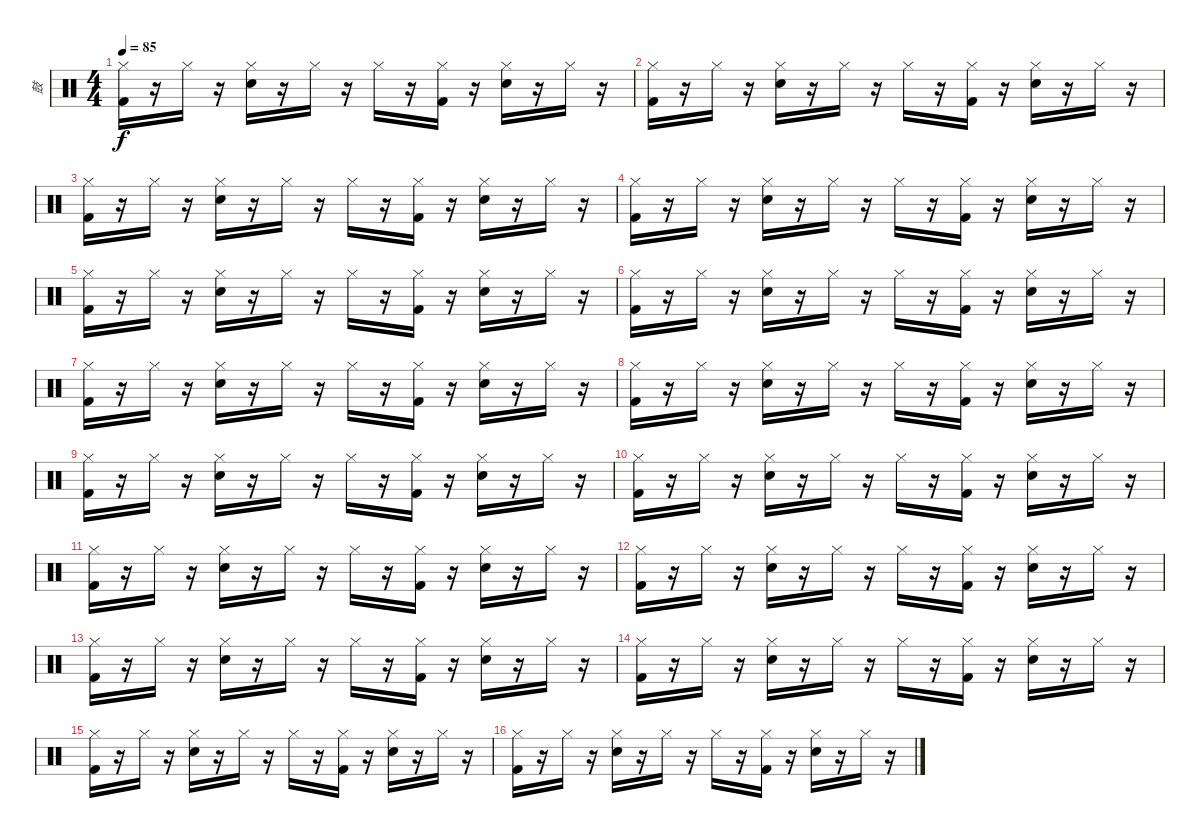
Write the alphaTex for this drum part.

\track ("鼓" "鼓") {instrument percussion}
\staff {score}
\articulation defaults
\ts (4 4)
\tempo 85
\clef neutral
\ks c
("Hi-Hat (closed)" "Kick (hit) 2").16{dy f} r.16 "Hi-Hat (closed)".16 r.16 ("Hi-Hat (closed)" "Snare (hit) 2").16 r.16 "Hi-Hat (closed)".16 r.16 "Hi-Hat (closed)".16 r.16 ("Hi-Hat (closed)" "Kick (hit) 2").16 r.16 ("Hi-Hat (closed)" "Snare (hit) 2").16 r.16 "Hi-Hat (closed)".16 r.16 |
("Hi-Hat (closed)" "Kick (hit) 2").16 r.16 "Hi-Hat (closed)".16 r.16 ("Hi-Hat (closed)" "Snare (hit) 2").16 r.16 "Hi-Hat (closed)".16 r.16 "Hi-Hat (closed)".16 r.16 ("Hi-Hat (closed)" "Kick (hit) 2").16 r.16 ("Hi-Hat (closed)" "Snare (hit) 2").16 r.16 "Hi-Hat (closed)".16 r.16 |
("Hi-Hat (closed)" "Kick (hit) 2").16 r.16 "Hi-Hat (closed)".16 r.16 ("Hi-Hat (closed)" "Snare (hit) 2").16 r.16 "Hi-Hat (closed)".16 r.16 "Hi-Hat (closed)".16 r.16 ("Hi-Hat (closed)" "Kick (hit) 2").16 r.16 ("Hi-Hat (closed)" "Snare (hit) 2").16 r.16 "Hi-Hat (closed)".16 r.16 |
("Hi-Hat (closed)" "Kick (hit) 2").16 r.16 "Hi-Hat (closed)".16 r.16 ("Hi-Hat (closed)" "Snare (hit) 2").16 r.16 "Hi-Hat (closed)".16 r.16 "Hi-Hat (closed)".16 r.16 ("Hi-Hat (closed)" "Kick (hit) 2").16 r.16 ("Hi-Hat (closed)" "Snare (hit) 2").16 r.16 "Hi-Hat (closed)".16 r.16 |
("Hi-Hat (closed)" "Kick (hit) 2").16 r.16 "Hi-Hat (closed)".16 r.16 ("Hi-Hat (closed)" "Snare (hit) 2").16 r.16 "Hi-Hat (closed)".16 r.16 "Hi-Hat (closed)".16 r.16 ("Hi-Hat (closed)" "Kick (hit) 2").16 r.16 ("Hi-Hat (closed)" "Snare (hit) 2").16 r.16 "Hi-Hat (closed)".16 r.16 |
("Hi-Hat (closed)" "Kick (hit) 2").16 r.16 "Hi-Hat (closed)".16 r.16 ("Hi-Hat (closed)" "Snare (hit) 2").16 r.16 "Hi-Hat (closed)".16 r.16 "Hi-Hat (closed)".16 r.16 ("Hi-Hat (closed)" "Kick (hit) 2").16 r.16 ("Hi-Hat (closed)" "Snare (hit) 2").16 r.16 "Hi-Hat (closed)".16 r.16 |
("Hi-Hat (closed)" "Kick (hit) 2").16 r.16 "Hi-Hat (closed)".16 r.16 ("Hi-Hat (closed)" "Snare (hit) 2").16 r.16 "Hi-Hat (closed)".16 r.16 "Hi-Hat (closed)".16 r.16 ("Hi-Hat (closed)" "Kick (hit) 2").16 r.16 ("Hi-Hat (closed)" "Snare (hit) 2").16 r.16 "Hi-Hat (closed)".16 r.16 |
("Hi-Hat (closed)" "Kick (hit) 2").16 r.16 "Hi-Hat (closed)".16 r.16 ("Hi-Hat (closed)" "Snare (hit) 2").16 r.16 "Hi-Hat (closed)".16 r.16 "Hi-Hat (closed)".16 r.16 ("Hi-Hat (closed)" "Kick (hit) 2").16 r.16 ("Hi-Hat (closed)" "Snare (hit) 2").16 r.16 "Hi-Hat (closed)".16 r.16 |
("Hi-Hat (closed)" "Kick (hit) 2").16 r.16 "Hi-Hat (closed)".16 r.16 ("Hi-Hat (closed)" "Snare (hit) 2").16 r.16 "Hi-Hat (closed)".16 r.16 "Hi-Hat (closed)".16 r.16 ("Hi-Hat (closed)" "Kick (hit) 2").16 r.16 ("Hi-Hat (closed)" "Snare (hit) 2").16 r.16 "Hi-Hat (closed)".16 r.16 |
("Hi-Hat (closed)" "Kick (hit) 2").16 r.16 "Hi-Hat (closed)".16 r.16 ("Hi-Hat (closed)" "Snare (hit) 2").16 r.16 "Hi-Hat (closed)".16 r.16 "Hi-Hat (closed)".16 r.16 ("Hi-Hat (closed)" "Kick (hit) 2").16 r.16 ("Hi-Hat (closed)" "Snare (hit) 2").16 r.16 "Hi-Hat (closed)".16 r.16 |
("Hi-Hat (closed)" "Kick (hit) 2").16 r.16 "Hi-Hat (closed)".16 r.16 ("Hi-Hat (closed)" "Snare (hit) 2").16 r.16 "Hi-Hat (closed)".16 r.16 "Hi-Hat (closed)".16 r.16 ("Hi-Hat (closed)" "Kick (hit) 2").16 r.16 ("Hi-Hat (closed)" "Snare (hit) 2").16 r.16 "Hi-Hat (closed)".16 r.16 |
("Hi-Hat (closed)" "Kick (hit) 2").16 r.16 "Hi-Hat (closed)".16 r.16 ("Hi-Hat (closed)" "Snare (hit) 2").16 r.16 "Hi-Hat (closed)".16 r.16 "Hi-Hat (closed)".16 r.16 ("Hi-Hat (closed)" "Kick (hit) 2").16 r.16 ("Hi-Hat (closed)" "Snare (hit) 2").16 r.16 "Hi-Hat (closed)".16 r.16 |
("Hi-Hat (closed)" "Kick (hit) 2").16 r.16 "Hi-Hat (closed)".16 r.16 ("Hi-Hat (closed)" "Snare (hit) 2").16 r.16 "Hi-Hat (closed)".16 r.16 "Hi-Hat (closed)".16 r.16 ("Hi-Hat (closed)" "Kick (hit) 2").16 r.16 ("Hi-Hat (closed)" "Snare (hit) 2").16 r.16 "Hi-Hat (closed)".16 r.16 |
("Hi-Hat (closed)" "Kick (hit) 2").16 r.16 "Hi-Hat (closed)".16 r.16 ("Hi-Hat (closed)" "Snare (hit) 2").16 r.16 "Hi-Hat (closed)".16 r.16 "Hi-Hat (closed)".16 r.16 ("Hi-Hat (closed)" "Kick (hit) 2").16 r.16 ("Hi-Hat (closed)" "Snare (hit) 2").16 r.16 "Hi-Hat (closed)".16 r.16 |
("Hi-Hat (closed)" "Kick (hit) 2").16 r.16 "Hi-Hat (closed)".16 r.16 ("Hi-Hat (closed)" "Snare (hit) 2").16 r.16 "Hi-Hat (closed)".16 r.16 "Hi-Hat (closed)".16 r.16 ("Hi-Hat (closed)" "Kick (hit) 2").16 r.16 ("Hi-Hat (closed)" "Snare (hit) 2").16 r.16 "Hi-Hat (closed)".16 r.16 |
("Hi-Hat (closed)" "Kick (hit) 2").16 r.16 "Hi-Hat (closed)".16 r.16 ("Hi-Hat (closed)" "Snare (hit) 2").16 r.16 "Hi-Hat (closed)".16 r.16 "Hi-Hat (closed)".16 r.16 ("Hi-Hat (closed)" "Kick (hit) 2").16 r.16 ("Hi-Hat (closed)" "Snare (hit) 2").16 r.16 "Hi-Hat (closed)".16 r.16
